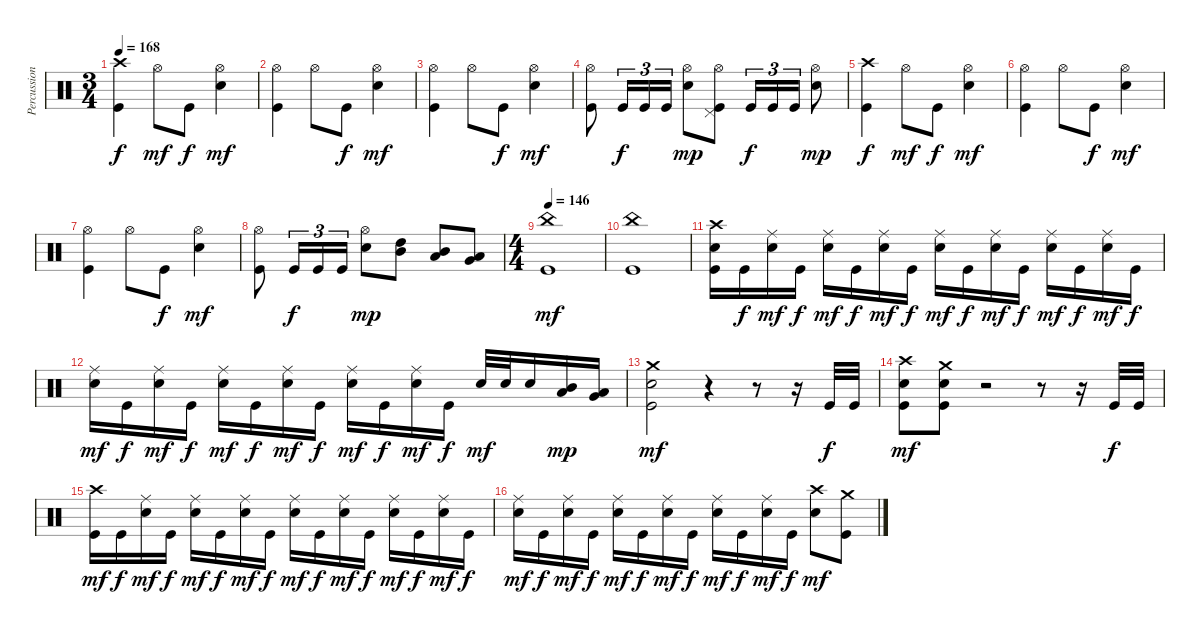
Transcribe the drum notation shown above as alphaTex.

\track ("Percussions" "Percussion") {instrument percussion}
\staff {score}
\articulation defaults
\ts (3 4)
\tempo 168
\clef neutral
\ks c
("Kick (hit)" "Crash high (hit)").4{dy f} "Hi-Hat (open)".8{dy mf} "Kick (hit)".8{dy f} ("Electric Snare (hit)" "Hi-Hat (open)").4{dy mf} |
("Kick (hit)" "Hi-Hat (open)").4 "Hi-Hat (open)".8 "Kick (hit)".8{dy f} ("Electric Snare (hit)" "Hi-Hat (open)").4{dy mf} |
("Kick (hit)" "Hi-Hat (open)").4 "Hi-Hat (open)".8 "Kick (hit)".8{dy f} ("Electric Snare (hit)" "Hi-Hat (open)").4{dy mf} |
("Kick (hit)" "Hi-Hat (open)").8 "Kick (hit)".16{tu (3 2) dy f} "Kick (hit)".16{tu (3 2)} "Kick (hit)".16{tu (3 2)} ("Electric Snare (hit)" "Hi-Hat (open)").8{dy mp} ("Kick (hit)" "Pedal Hi-Hat (hit)" "Hi-Hat (open)").8 "Kick (hit)".16{tu (3 2) dy f} "Kick (hit)".16{tu (3 2)} "Kick (hit)".16{tu (3 2)} ("Electric Snare (hit)" "Hi-Hat (open)").8{dy mp} |
("Kick (hit)" "Crash high (hit)").4{dy f} "Hi-Hat (open)".8{dy mf} "Kick (hit)".8{dy f} ("Electric Snare (hit)" "Hi-Hat (open)").4{dy mf} |
("Kick (hit)" "Hi-Hat (open)").4 "Hi-Hat (open)".8 "Kick (hit)".8{dy f} ("Electric Snare (hit)" "Hi-Hat (open)").4{dy mf} |
("Kick (hit)" "Hi-Hat (open)").4 "Hi-Hat (open)".8 "Kick (hit)".8{dy f} ("Electric Snare (hit)" "Hi-Hat (open)").4{dy mf} |
("Kick (hit)" "Hi-Hat (open)").8 "Kick (hit)".16{tu (3 2) dy f} "Kick (hit)".16{tu (3 2)} "Kick (hit)".16{tu (3 2)} ("Electric Snare (hit)" "Hi-Hat (open)").8{dy mp} ("Mid Tom (hit)" "High Tom (hit)").8 ("Low Tom (hit)" "Mid Tom (hit)").8 ("Low Floor Tom (hit)" "Very Low Tom (hit)").8 |
\ts (4 4)
\tempo 146
("Kick (hit)" "China (hit)").1{dy mf} |
("Kick (hit)" "China (hit)").1 |
("Kick (hit)" "Electric Snare (hit)" "Crash high (hit)").16 "Kick (hit)".16{dy f} ("Electric Snare (hit)" "Ride (middle)").16{dy mf} "Kick (hit)".16{dy f} ("Electric Snare (hit)" "Ride (middle)").16{dy mf} "Kick (hit)".16{dy f} ("Electric Snare (hit)" "Ride (middle)").16{dy mf} "Kick (hit)".16{dy f} ("Electric Snare (hit)" "Ride (middle)").16{dy mf} "Kick (hit)".16{dy f} ("Electric Snare (hit)" "Ride (middle)").16{dy mf} "Kick (hit)".16{dy f} ("Electric Snare (hit)" "Ride (middle)").16{dy mf} "Kick (hit)".16{dy f} ("Electric Snare (hit)" "Ride (middle)").16{dy mf} "Kick (hit)".16{dy f} |
("Electric Snare (hit)" "Ride (middle)").16{dy mf} "Kick (hit)".16{dy f} ("Electric Snare (hit)" "Ride (middle)").16{dy mf} "Kick (hit)".16{dy f} ("Electric Snare (hit)" "Ride (middle)").16{dy mf} "Kick (hit)".16{dy f} ("Electric Snare (hit)" "Ride (middle)").16{dy mf} "Kick (hit)".16{dy f} ("Electric Snare (hit)" "Ride (middle)").16{dy mf} "Kick (hit)".16{dy f} ("Electric Snare (hit)" "Ride (middle)").16{dy mf} "Kick (hit)".16{dy f} "Electric Snare (hit)".32{dy mf} "Electric Snare (hit)".32 "Electric Snare (hit)".16 ("Low Tom (hit)" "Mid Tom (hit)").16{dy mp} ("Very Low Tom (hit)" "Low Tom (hit)").16 |
("Kick (hit)" "Electric Snare (hit)" "Crash medium (hit)").2{dy mf} r.4 r.8 r.16 "Kick (hit)".32{dy f} "Kick (hit)".32 |
("Kick (hit)" "Electric Snare (hit)" "Crash high (hit)").8{dy mf} ("Kick (hit)" "Electric Snare (hit)" "Crash medium (hit)").8 r.2 r.8 r.16 "Kick (hit)".32{dy f} "Kick (hit)".32 |
("Kick (hit)" "Crash high (hit)").16{dy mf} "Kick (hit)".16{dy f} ("Electric Snare (hit)" "Ride (middle)").16{dy mf} "Kick (hit)".16{dy f} ("Electric Snare (hit)" "Ride (middle)").16{dy mf} "Kick (hit)".16{dy f} ("Electric Snare (hit)" "Ride (middle)").16{dy mf} "Kick (hit)".16{dy f} ("Electric Snare (hit)" "Ride (middle)").16{dy mf} "Kick (hit)".16{dy f} ("Electric Snare (hit)" "Ride (middle)").16{dy mf} "Kick (hit)".16{dy f} ("Electric Snare (hit)" "Ride (middle)").16{dy mf} "Kick (hit)".16{dy f} ("Electric Snare (hit)" "Ride (middle)").16{dy mf} "Kick (hit)".16{dy f} |
("Electric Snare (hit)" "Ride (middle)").16{dy mf} "Kick (hit)".16{dy f} ("Electric Snare (hit)" "Ride (middle)").16{dy mf} "Kick (hit)".16{dy f} ("Electric Snare (hit)" "Ride (middle)").16{dy mf} "Kick (hit)".16{dy f} ("Electric Snare (hit)" "Ride (middle)").16{dy mf} "Kick (hit)".16{dy f} ("Electric Snare (hit)" "Ride (middle)").16{dy mf} "Kick (hit)".16{dy f} ("Electric Snare (hit)" "Ride (middle)").16{dy mf} "Kick (hit)".16{dy f} ("Electric Snare (hit)" "Crash high (hit)").8{dy mf} ("Kick (hit)" "Crash medium (hit)").8
